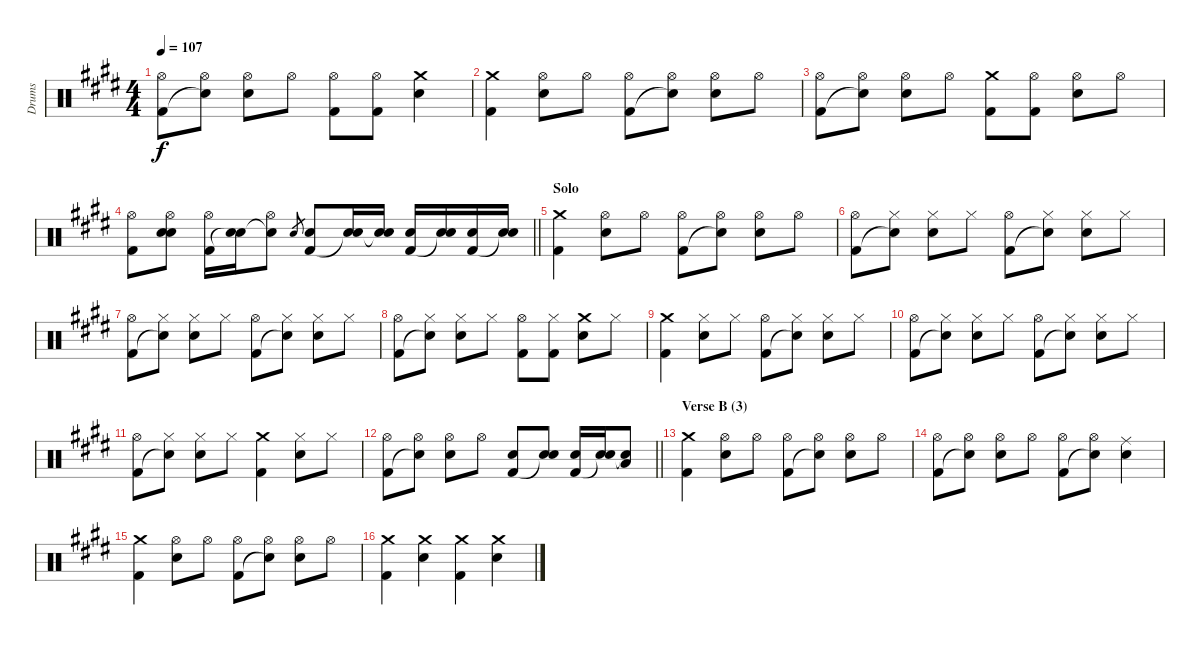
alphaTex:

\track ("Drums" "Drums") {instrument percussion}
\staff {score}
\articulation defaults
\ts (4 4)
\tempo 107
\clef neutral
\ks e
("Hi-Hat (open)" "Kick (hit) 2").8{dy f} ("Hi-Hat (open)" "Snare (hit)"{t}).8 ("Hi-Hat (open)" "Electric Snare (hit)").8 "Hi-Hat (open)".8 ("Hi-Hat (open)" "Kick (hit) 2").8 ("Hi-Hat (open)" "Kick (hit) 2").8 ("Crash medium (hit)" "Electric Snare (hit)").4 |
("Crash medium (hit)" "Kick (hit) 2").4 ("Hi-Hat (open)" "Electric Snare (hit)").8 "Hi-Hat (open)".8 ("Hi-Hat (open)" "Kick (hit) 2").8 ("Hi-Hat (open)" "Snare (hit)"{t}).8 ("Hi-Hat (open)" "Electric Snare (hit)").8 "Hi-Hat (open)".8 |
("Hi-Hat (open)" "Kick (hit) 2").8 ("Hi-Hat (open)" "Snare (hit)"{t}).8 ("Hi-Hat (open)" "Electric Snare (hit)").8 "Hi-Hat (open)".8 ("Crash medium (hit)" "Kick (hit) 2").8 ("Hi-Hat (open)" "Kick (hit) 2").8 ("Hi-Hat (open)" "Electric Snare (hit)").8 "Hi-Hat (open)".8 |
\barLineRight lightlight
("Hi-Hat (open)" "Kick (hit) 2").8 ("Hi-Hat (open)" "Electric Snare (hit)" "Snare (hit)").8 ("Hi-Hat (open)" "Kick (hit) 2").16 ("Electric Snare (hit)" "Snare (hit)"{t}).16 ("Hi-Hat (open)" "Snare (hit)"{t}).8 "Electric Snare (hit)".8{gr} ("Electric Snare (hit)" "Kick (hit) 2").8 ("Electric Snare (hit)" "Snare (hit)"{t}).16 ("Electric Snare (hit)" "Snare (hit)"{t}).16 ("Electric Snare (hit)" "Kick (hit) 2").16 ("Electric Snare (hit)" "Snare (hit)"{t}).16 ("Electric Snare (hit)" "Kick (hit) 2").16 ("Electric Snare (hit)" "Snare (hit)"{t}).16 |
\section ("" "Solo")
("Crash medium (hit)" "Kick (hit) 2").4 ("Hi-Hat (open)" "Electric Snare (hit)").8 "Hi-Hat (open)".8 ("Hi-Hat (open)" "Kick (hit) 2").8 ("Hi-Hat (open)" "Snare (hit)"{t}).8 ("Hi-Hat (open)" "Electric Snare (hit)").8 "Hi-Hat (open)".8 |
("Hi-Hat (open)" "Kick (hit) 2").8 ("Hi-Hat (closed)" "Snare (hit)"{t}).8 ("Hi-Hat (closed)" "Electric Snare (hit)").8 "Hi-Hat (closed)".8 ("Hi-Hat (open)" "Kick (hit) 2").8 ("Hi-Hat (closed)" "Snare (hit)"{t}).8 ("Hi-Hat (closed)" "Electric Snare (hit)").8 "Hi-Hat (closed)".8 |
("Hi-Hat (open)" "Kick (hit) 2").8 ("Hi-Hat (closed)" "Snare (hit)"{t}).8 ("Hi-Hat (closed)" "Electric Snare (hit)").8 "Hi-Hat (closed)".8 ("Hi-Hat (open)" "Kick (hit) 2").8 ("Hi-Hat (closed)" "Snare (hit)"{t}).8 ("Hi-Hat (closed)" "Electric Snare (hit)").8 "Hi-Hat (closed)".8 |
("Hi-Hat (open)" "Kick (hit) 2").8 ("Hi-Hat (closed)" "Snare (hit)"{t}).8 ("Hi-Hat (closed)" "Electric Snare (hit)").8 "Hi-Hat (closed)".8 ("Hi-Hat (open)" "Kick (hit) 2").8 ("Hi-Hat (closed)" "Kick (hit) 2").8 ("Crash medium (hit)" "Electric Snare (hit)").8 "Hi-Hat (closed)".8 |
("Crash medium (hit)" "Kick (hit) 2").4 ("Hi-Hat (closed)" "Electric Snare (hit)").8 "Hi-Hat (closed)".8 ("Hi-Hat (open)" "Kick (hit) 2").8 ("Hi-Hat (closed)" "Snare (hit)"{t}).8 ("Hi-Hat (closed)" "Electric Snare (hit)").8 "Hi-Hat (closed)".8 |
("Hi-Hat (open)" "Kick (hit) 2").8 ("Hi-Hat (closed)" "Snare (hit)"{t}).8 ("Hi-Hat (closed)" "Electric Snare (hit)").8 "Hi-Hat (closed)".8 ("Hi-Hat (open)" "Kick (hit) 2").8 ("Hi-Hat (closed)" "Snare (hit)"{t}).8 ("Hi-Hat (closed)" "Electric Snare (hit)").8 "Hi-Hat (closed)".8 |
("Hi-Hat (open)" "Kick (hit) 2").8 ("Hi-Hat (closed)" "Snare (hit)"{t}).8 ("Hi-Hat (closed)" "Electric Snare (hit)").8 "Hi-Hat (closed)".8 ("Crash medium (hit)" "Kick (hit) 2").4 ("Hi-Hat (closed)" "Electric Snare (hit)").8 "Hi-Hat (closed)".8 |
\barLineRight lightlight
("Hi-Hat (open)" "Kick (hit) 2").8 ("Hi-Hat (open)" "Snare (hit)"{t}).8 ("Hi-Hat (open)" "Electric Snare (hit)").8 "Hi-Hat (open)".8 ("Electric Snare (hit)" "Kick (hit) 2").8 ("Electric Snare (hit)" "Snare (hit)"{t}).8 ("Electric Snare (hit)" "Kick (hit) 2").16 ("Electric Snare (hit)" "Snare (hit)"{t}).16 ("Low Tom (hit)" "Snare (hit)"{t}).8 |
\section ("" "Verse B (3)")
("Crash medium (hit)" "Kick (hit) 2").4 ("Hi-Hat (open)" "Electric Snare (hit)").8 "Hi-Hat (open)".8 ("Hi-Hat (open)" "Kick (hit) 2").8 ("Hi-Hat (open)" "Snare (hit)"{t}).8 ("Hi-Hat (open)" "Electric Snare (hit)").8 "Hi-Hat (open)".8 |
("Hi-Hat (open)" "Kick (hit) 2").8 ("Hi-Hat (open)" "Snare (hit)"{t}).8 ("Hi-Hat (open)" "Electric Snare (hit)").8 "Hi-Hat (open)".8 ("Hi-Hat (open)" "Kick (hit) 2").8 ("Hi-Hat (open)" "Snare (hit)"{t}).8 ("Ride (middle)" "Electric Snare (hit)").4 |
("Crash medium (hit)" "Kick (hit) 2").4 ("Hi-Hat (open)" "Electric Snare (hit)").8 "Hi-Hat (open)".8 ("Hi-Hat (open)" "Kick (hit) 2").8 ("Hi-Hat (open)" "Snare (hit)"{t}).8 ("Hi-Hat (open)" "Electric Snare (hit)").8 "Hi-Hat (open)".8 |
("Crash medium (hit)" "Kick (hit) 2").4 ("Crash medium (hit)" "Electric Snare (hit)").4 ("Crash medium (hit)" "Kick (hit) 2").4 ("Crash medium (hit)" "Electric Snare (hit)").4
